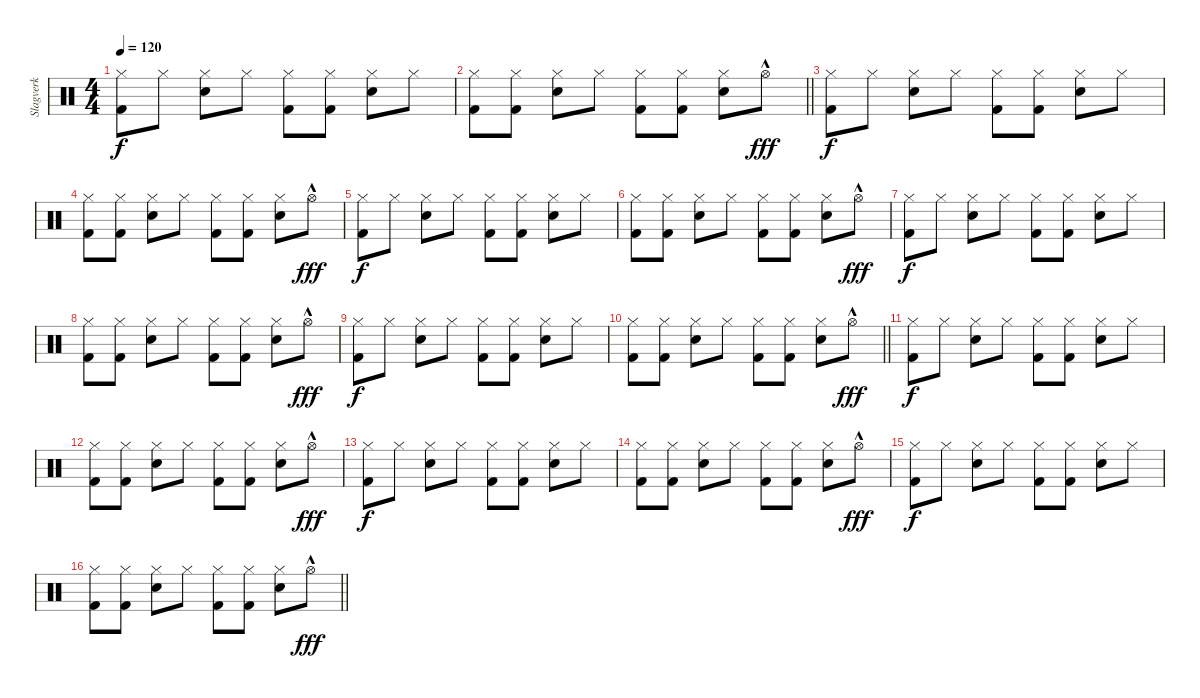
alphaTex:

\track ("Slagverk" "Slagverk") {instrument percussion}
\staff {score}
\articulation defaults
\ts (4 4)
\tempo 120
\clef neutral
\ks c
("Hi-Hat (closed)" "Kick (hit) 2").8{dy f} "Hi-Hat (closed)".8 ("Hi-Hat (closed)" "Snare (hit) 2").8 "Hi-Hat (closed)".8 ("Hi-Hat (closed)" "Kick (hit) 2").8 ("Hi-Hat (closed)" "Kick (hit) 2").8 ("Hi-Hat (closed)" "Snare (hit) 2").8 "Hi-Hat (closed)".8 |
\barLineRight lightlight
("Hi-Hat (closed)" "Kick (hit) 2").8 ("Hi-Hat (closed)" "Kick (hit) 2").8 ("Hi-Hat (closed)" "Snare (hit) 2").8 "Hi-Hat (closed)".8 ("Hi-Hat (closed)" "Kick (hit) 2").8 ("Hi-Hat (closed)" "Kick (hit) 2").8 ("Hi-Hat (closed)" "Snare (hit) 2").8 "Hi-Hat (open)"{hac}.8{dy fff} |
("Hi-Hat (closed)" "Kick (hit) 2").8{dy f} "Hi-Hat (closed)".8 ("Hi-Hat (closed)" "Snare (hit) 2").8 "Hi-Hat (closed)".8 ("Hi-Hat (closed)" "Kick (hit) 2").8 ("Hi-Hat (closed)" "Kick (hit) 2").8 ("Hi-Hat (closed)" "Snare (hit) 2").8 "Hi-Hat (closed)".8 |
("Hi-Hat (closed)" "Kick (hit) 2").8 ("Hi-Hat (closed)" "Kick (hit) 2").8 ("Hi-Hat (closed)" "Snare (hit) 2").8 "Hi-Hat (closed)".8 ("Hi-Hat (closed)" "Kick (hit) 2").8 ("Hi-Hat (closed)" "Kick (hit) 2").8 ("Hi-Hat (closed)" "Snare (hit) 2").8 "Hi-Hat (open)"{hac}.8{dy fff} |
("Hi-Hat (closed)" "Kick (hit) 2").8{dy f} "Hi-Hat (closed)".8 ("Hi-Hat (closed)" "Snare (hit) 2").8 "Hi-Hat (closed)".8 ("Hi-Hat (closed)" "Kick (hit) 2").8 ("Hi-Hat (closed)" "Kick (hit) 2").8 ("Hi-Hat (closed)" "Snare (hit) 2").8 "Hi-Hat (closed)".8 |
("Hi-Hat (closed)" "Kick (hit) 2").8 ("Hi-Hat (closed)" "Kick (hit) 2").8 ("Hi-Hat (closed)" "Snare (hit) 2").8 "Hi-Hat (closed)".8 ("Hi-Hat (closed)" "Kick (hit) 2").8 ("Hi-Hat (closed)" "Kick (hit) 2").8 ("Hi-Hat (closed)" "Snare (hit) 2").8 "Hi-Hat (open)"{hac}.8{dy fff} |
("Hi-Hat (closed)" "Kick (hit) 2").8{dy f} "Hi-Hat (closed)".8 ("Hi-Hat (closed)" "Snare (hit) 2").8 "Hi-Hat (closed)".8 ("Hi-Hat (closed)" "Kick (hit) 2").8 ("Hi-Hat (closed)" "Kick (hit) 2").8 ("Hi-Hat (closed)" "Snare (hit) 2").8 "Hi-Hat (closed)".8 |
("Hi-Hat (closed)" "Kick (hit) 2").8 ("Hi-Hat (closed)" "Kick (hit) 2").8 ("Hi-Hat (closed)" "Snare (hit) 2").8 "Hi-Hat (closed)".8 ("Hi-Hat (closed)" "Kick (hit) 2").8 ("Hi-Hat (closed)" "Kick (hit) 2").8 ("Hi-Hat (closed)" "Snare (hit) 2").8 "Hi-Hat (open)"{hac}.8{dy fff} |
("Hi-Hat (closed)" "Kick (hit) 2").8{dy f} "Hi-Hat (closed)".8 ("Hi-Hat (closed)" "Snare (hit) 2").8 "Hi-Hat (closed)".8 ("Hi-Hat (closed)" "Kick (hit) 2").8 ("Hi-Hat (closed)" "Kick (hit) 2").8 ("Hi-Hat (closed)" "Snare (hit) 2").8 "Hi-Hat (closed)".8 |
\barLineRight lightlight
("Hi-Hat (closed)" "Kick (hit) 2").8 ("Hi-Hat (closed)" "Kick (hit) 2").8 ("Hi-Hat (closed)" "Snare (hit) 2").8 "Hi-Hat (closed)".8 ("Hi-Hat (closed)" "Kick (hit) 2").8 ("Hi-Hat (closed)" "Kick (hit) 2").8 ("Hi-Hat (closed)" "Snare (hit) 2").8 "Hi-Hat (open)"{hac}.8{dy fff} |
("Hi-Hat (closed)" "Kick (hit) 2").8{dy f} "Hi-Hat (closed)".8 ("Hi-Hat (closed)" "Snare (hit) 2").8 "Hi-Hat (closed)".8 ("Hi-Hat (closed)" "Kick (hit) 2").8 ("Hi-Hat (closed)" "Kick (hit) 2").8 ("Hi-Hat (closed)" "Snare (hit) 2").8 "Hi-Hat (closed)".8 |
("Hi-Hat (closed)" "Kick (hit) 2").8 ("Hi-Hat (closed)" "Kick (hit) 2").8 ("Hi-Hat (closed)" "Snare (hit) 2").8 "Hi-Hat (closed)".8 ("Hi-Hat (closed)" "Kick (hit) 2").8 ("Hi-Hat (closed)" "Kick (hit) 2").8 ("Hi-Hat (closed)" "Snare (hit) 2").8 "Hi-Hat (open)"{hac}.8{dy fff} |
("Hi-Hat (closed)" "Kick (hit) 2").8{dy f} "Hi-Hat (closed)".8 ("Hi-Hat (closed)" "Snare (hit) 2").8 "Hi-Hat (closed)".8 ("Hi-Hat (closed)" "Kick (hit) 2").8 ("Hi-Hat (closed)" "Kick (hit) 2").8 ("Hi-Hat (closed)" "Snare (hit) 2").8 "Hi-Hat (closed)".8 |
("Hi-Hat (closed)" "Kick (hit) 2").8 ("Hi-Hat (closed)" "Kick (hit) 2").8 ("Hi-Hat (closed)" "Snare (hit) 2").8 "Hi-Hat (closed)".8 ("Hi-Hat (closed)" "Kick (hit) 2").8 ("Hi-Hat (closed)" "Kick (hit) 2").8 ("Hi-Hat (closed)" "Snare (hit) 2").8 "Hi-Hat (open)"{hac}.8{dy fff} |
("Hi-Hat (closed)" "Kick (hit) 2").8{dy f} "Hi-Hat (closed)".8 ("Hi-Hat (closed)" "Snare (hit) 2").8 "Hi-Hat (closed)".8 ("Hi-Hat (closed)" "Kick (hit) 2").8 ("Hi-Hat (closed)" "Kick (hit) 2").8 ("Hi-Hat (closed)" "Snare (hit) 2").8 "Hi-Hat (closed)".8 |
\barLineRight lightlight
("Hi-Hat (closed)" "Kick (hit) 2").8 ("Hi-Hat (closed)" "Kick (hit) 2").8 ("Hi-Hat (closed)" "Snare (hit) 2").8 "Hi-Hat (closed)".8 ("Hi-Hat (closed)" "Kick (hit) 2").8 ("Hi-Hat (closed)" "Kick (hit) 2").8 ("Hi-Hat (closed)" "Snare (hit) 2").8 "Hi-Hat (open)"{hac}.8{dy fff}
